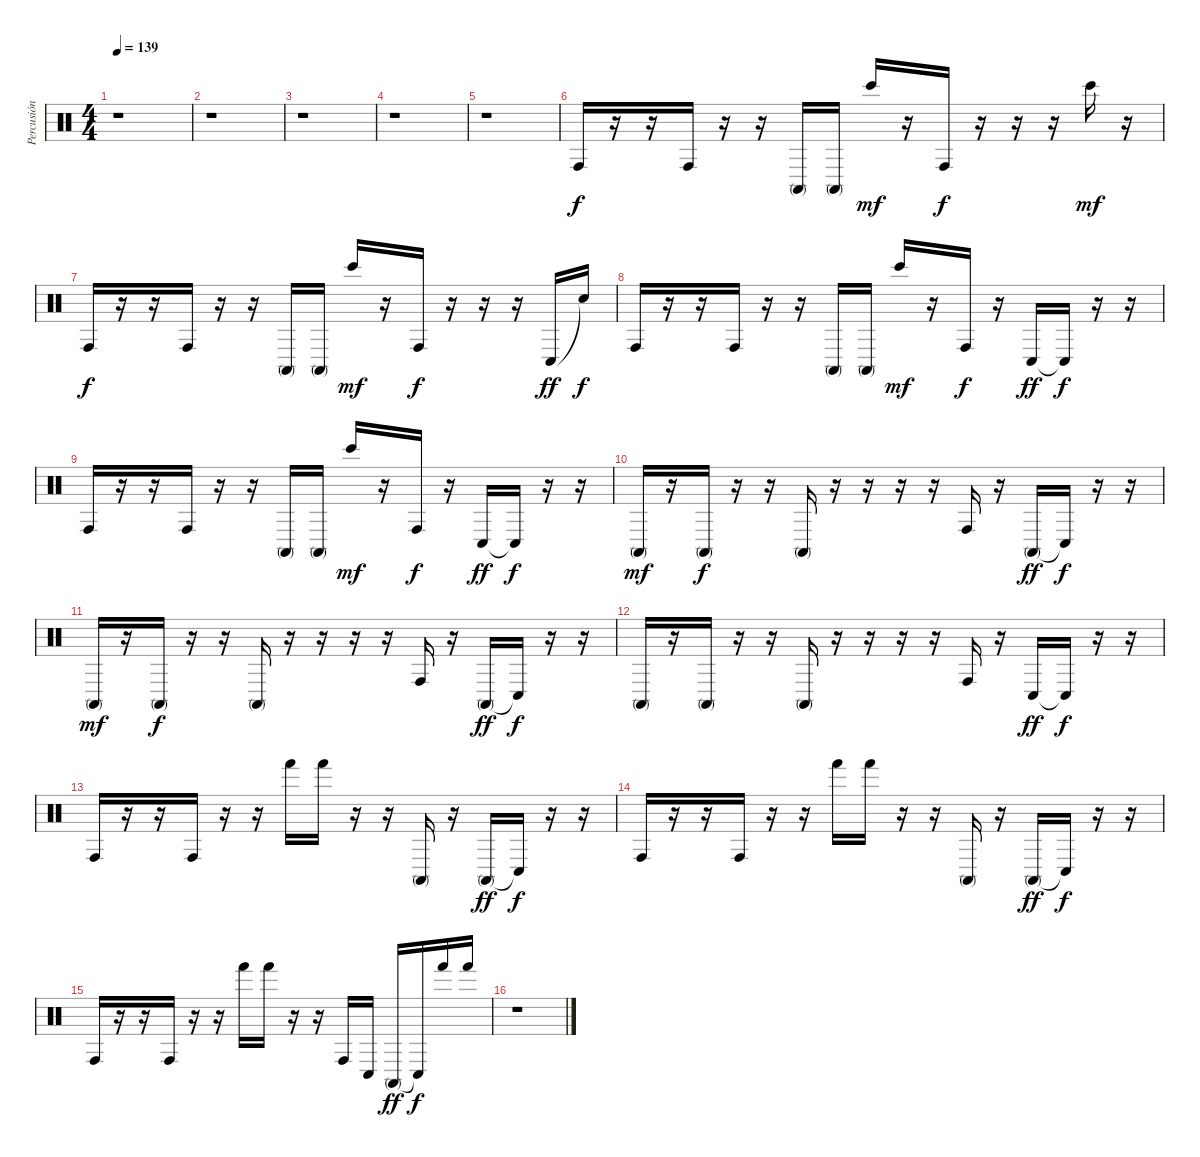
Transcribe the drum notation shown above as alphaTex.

\track ("Percusión" "Percusión") {instrument percussion}
\staff {score}
\articulation defaults
\ts (4 4)
\tempo 139
\clef neutral
\ks c
r.1{dy f} |
r.1 |
r.1 |
r.1 |
r.1 |
"Conga high (hit)".16 r.16 r.16 "Conga high (hit)".16 r.16 r.16 "Conga high (mute)".16 "Conga high (mute)".16 "Bongo High (hit)".16{dy mf} r.16 "Conga high (hit)".16{dy f} r.16 r.16 r.16 "Bongo High (hit)".16{dy mf} r.16 |
"Conga high (hit)".16{dy f} r.16 r.16 "Conga high (hit)".16 r.16 r.16 "Conga high (mute)".16 "Conga high (mute)".16 "Bongo High (hit)".16{dy mf} r.16 "Conga high (hit)".16{dy f} r.16 r.16 r.16 "Conga low (hit)".16{dy ff} "Snare (hit)"{t}.16{dy f} |
"Conga high (hit)".16 r.16 r.16 "Conga high (hit)".16 r.16 r.16 "Conga high (mute)".16 "Conga high (mute)".16 "Bongo High (hit)".16{dy mf} r.16 "Conga high (hit)".16{dy f} r.16 "Conga low (hit)".16{dy ff} "Conga low (hit)"{t}.16{dy f} r.16 r.16 |
"Conga high (hit)".16 r.16 r.16 "Conga high (hit)".16 r.16 r.16 "Conga high (mute)".16 "Conga high (mute)".16 "Bongo High (hit)".16{dy mf} r.16 "Conga high (hit)".16{dy f} r.16 "Conga low (hit)".16{dy ff} "Conga low (hit)"{t}.16{dy f} r.16 r.16 |
"Conga high (mute)".16{dy mf} r.16 "Conga high (mute)".16{dy f} r.16 r.16 "Conga high (mute)".16 r.16 r.16 r.16 r.16 "Conga high (hit)".16 r.16 "Conga high (mute)".16{dy ff} "Conga low (hit)"{t}.16{dy f} r.16 r.16 |
"Conga high (mute)".16{dy mf} r.16 "Conga high (mute)".16{dy f} r.16 r.16 "Conga high (mute)".16 r.16 r.16 r.16 r.16 "Conga high (hit)".16 r.16 "Conga high (mute)".16{dy ff} "Conga low (hit)"{t}.16{dy f} r.16 r.16 |
"Conga high (mute)".16 r.16 "Conga high (mute)".16 r.16 r.16 "Conga high (mute)".16 r.16 r.16 r.16 r.16 "Conga high (hit)".16 r.16 "Conga low (hit)".16{dy ff} "Conga low (hit)"{t}.16{dy f} r.16 r.16 |
"Conga high (hit)".16 r.16 r.16 "Conga high (hit)".16 r.16 r.16 "Hand (hit)".16 "Hand (hit)".16 r.16 r.16 "Conga high (mute)".16 r.16 "Conga high (mute)".16{dy ff} "Conga low (hit)"{t}.16{dy f} r.16 r.16 |
"Conga high (hit)".16 r.16 r.16 "Conga high (hit)".16 r.16 r.16 "Hand (hit)".16 "Hand (hit)".16 r.16 r.16 "Conga high (mute)".16 r.16 "Conga high (mute)".16{dy ff} "Conga low (hit)"{t}.16{dy f} r.16 r.16 |
"Conga high (hit)".16 r.16 r.16 "Conga high (hit)".16 r.16 r.16 "Hand (hit)".16 "Hand (hit)".16 r.16 r.16 "Conga high (hit)".16 "Conga low (hit)".16 "Conga high (mute)".16{dy ff} "Conga low (hit)"{t}.16{dy f} "Hand (hit)".16 "Hand (hit)".16 |
r.1
